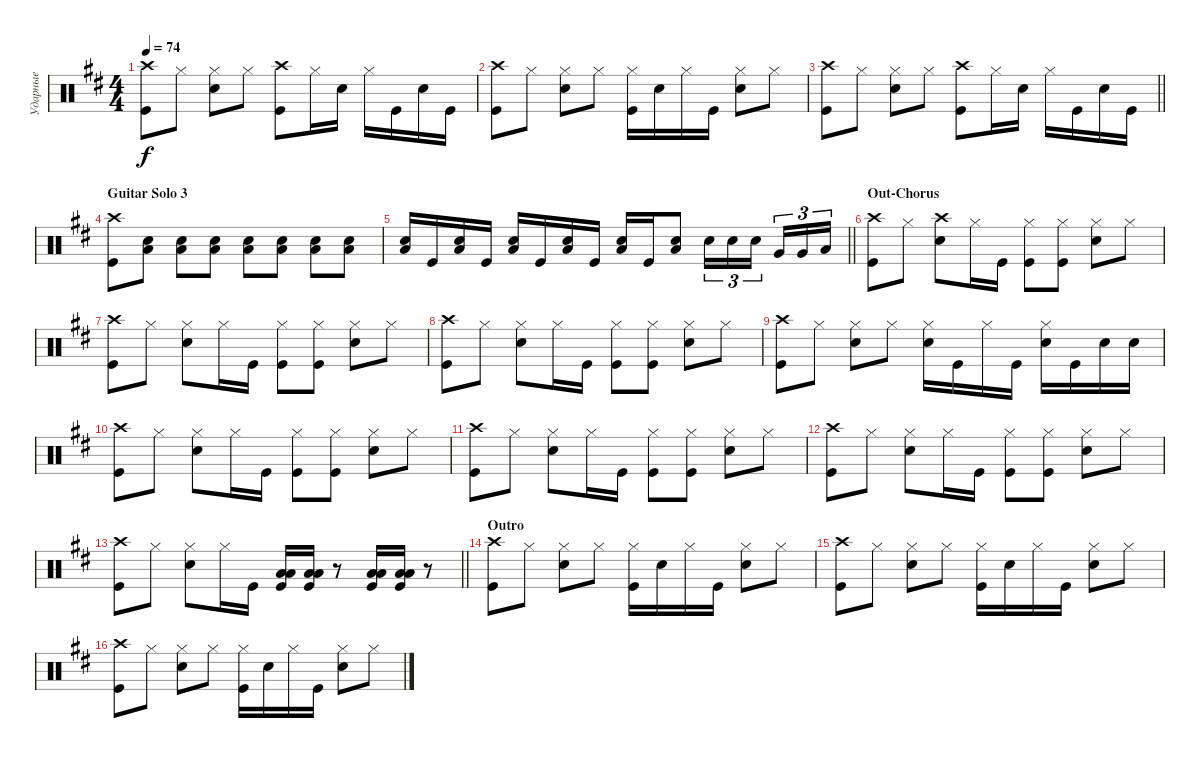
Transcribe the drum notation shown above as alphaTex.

\track ("Ударные" "Ударные") {instrument percussion}
\staff {score}
\articulation defaults
\ts (4 4)
\tempo 74
\clef neutral
\ks bminor
("Kick (hit)" "Crash high (hit)").8{dy f} "Hi-Hat (closed)".8 ("Snare (hit) 2" "Hi-Hat (closed)").8 "Hi-Hat (closed)".8 ("Kick (hit)" "Crash high (hit)").8 "Hi-Hat (closed)".16 "Snare (hit) 2".16 "Hi-Hat (closed)".16 "Kick (hit)".16 "Snare (hit) 2".16 "Kick (hit)".16 |
("Kick (hit)" "Crash high (hit)").8 "Hi-Hat (closed)".8 ("Snare (hit) 2" "Hi-Hat (closed)").8 "Hi-Hat (closed)".8 ("Kick (hit)" "Hi-Hat (closed)").16 "Snare (hit) 2".16 "Hi-Hat (closed)".16 "Kick (hit)".16 ("Snare (hit) 2" "Hi-Hat (closed)").8 "Hi-Hat (closed)".8 |
\barLineRight lightlight
("Kick (hit)" "Crash high (hit)").8 "Hi-Hat (closed)".8 ("Snare (hit) 2" "Hi-Hat (closed)").8 "Hi-Hat (closed)".8 ("Kick (hit)" "Crash high (hit)").8 "Hi-Hat (closed)".16 "Snare (hit) 2".16 "Hi-Hat (closed)".16 "Kick (hit)".16 "Snare (hit) 2".16 "Kick (hit)".16 |
\section ("" "Guitar Solo 3")
("Kick (hit)" "Crash high (hit)").8 ("Low Floor Tom (hit)" "Snare (hit) 2").8{bd 60} ("Snare (hit) 2" "Low Floor Tom (hit)").8{bd 60} ("Snare (hit) 2" "Low Floor Tom (hit)").8{bd 60} ("Snare (hit) 2" "Low Floor Tom (hit)").8{bd 60} ("Snare (hit) 2" "Low Floor Tom (hit)").8{bd 60} ("Snare (hit) 2" "Low Floor Tom (hit)").8{bd 60} ("Snare (hit) 2" "Low Floor Tom (hit)").8{bd 60} |
\barLineRight lightlight
("Snare (hit) 2" "Low Floor Tom (hit)").16{bd 60} "Kick (hit)".16 ("Snare (hit) 2" "Low Floor Tom (hit)").16{bd 60} "Kick (hit)".16 ("Snare (hit) 2" "Low Floor Tom (hit)").16{bd 60} "Kick (hit)".16 ("Snare (hit) 2" "Low Floor Tom (hit)").16{bd 60} "Kick (hit)".16 ("Snare (hit) 2" "Low Floor Tom (hit)").16{bd 60} "Kick (hit)".16 ("Snare (hit) 2" "Low Floor Tom (hit)").8{bd 60} "Snare (hit) 2".16{tu (3 2)} "Snare (hit) 2".16{tu (3 2)} "Snare (hit) 2".16{tu (3 2) beam splitsecondary} "Very Low Tom (hit)".16{tu (3 2)} "Very Low Tom (hit)".16{tu (3 2)} "Low Floor Tom (hit)".16{tu (3 2)} |
\section ("" "Out-Chorus")
("Kick (hit)" "Crash high (hit)").8 "Hi-Hat (closed)".8 ("Crash high (hit)" "Snare (hit) 2").8 "Hi-Hat (closed)".16 "Kick (hit)".16 ("Kick (hit)" "Hi-Hat (closed)").8 ("Kick (hit)" "Hi-Hat (closed)").8 ("Snare (hit) 2" "Hi-Hat (closed)").8 "Hi-Hat (closed)".8 |
("Kick (hit)" "Crash high (hit)").8 "Hi-Hat (closed)".8 ("Hi-Hat (closed)" "Snare (hit) 2").8 "Hi-Hat (closed)".16 "Kick (hit)".16 ("Kick (hit)" "Hi-Hat (closed)").8 ("Kick (hit)" "Hi-Hat (closed)").8 ("Snare (hit) 2" "Hi-Hat (closed)").8 "Hi-Hat (closed)".8 |
("Kick (hit)" "Crash high (hit)").8 "Hi-Hat (closed)".8 ("Hi-Hat (closed)" "Snare (hit) 2").8 "Hi-Hat (closed)".16 "Kick (hit)".16 ("Kick (hit)" "Hi-Hat (closed)").8 ("Kick (hit)" "Hi-Hat (closed)").8 ("Snare (hit) 2" "Hi-Hat (closed)").8 "Hi-Hat (closed)".8 |
("Kick (hit)" "Crash high (hit)").8 "Hi-Hat (closed)".8 ("Hi-Hat (closed)" "Snare (hit) 2").8 "Hi-Hat (closed)".8 ("Snare (hit) 2" "Hi-Hat (closed)").16 "Kick (hit)".16 "Hi-Hat (closed)".16 "Kick (hit)".16 ("Snare (hit) 2" "Hi-Hat (closed)").16 "Kick (hit)".16 "Snare (hit) 2".16 "Snare (hit) 2".16 |
("Kick (hit)" "Crash high (hit)").8 "Hi-Hat (closed)".8 ("Hi-Hat (closed)" "Snare (hit) 2").8 "Hi-Hat (closed)".16 "Kick (hit)".16 ("Kick (hit)" "Hi-Hat (closed)").8 ("Kick (hit)" "Hi-Hat (closed)").8 ("Snare (hit) 2" "Hi-Hat (closed)").8 "Hi-Hat (closed)".8 |
("Kick (hit)" "Crash high (hit)").8 "Hi-Hat (closed)".8 ("Hi-Hat (closed)" "Snare (hit) 2").8 "Hi-Hat (closed)".16 "Kick (hit)".16 ("Kick (hit)" "Hi-Hat (closed)").8 ("Kick (hit)" "Hi-Hat (closed)").8 ("Snare (hit) 2" "Hi-Hat (closed)").8 "Hi-Hat (closed)".8 |
("Kick (hit)" "Crash high (hit)").8 "Hi-Hat (closed)".8 ("Hi-Hat (closed)" "Snare (hit) 2").8 "Hi-Hat (closed)".16 "Kick (hit)".16 ("Kick (hit)" "Hi-Hat (closed)").8 ("Kick (hit)" "Hi-Hat (closed)").8 ("Snare (hit) 2" "Hi-Hat (closed)").8 "Hi-Hat (closed)".8 |
\barLineRight lightlight
("Kick (hit)" "Crash high (hit)").8 "Hi-Hat (closed)".8 ("Hi-Hat (closed)" "Snare (hit) 2").8 "Hi-Hat (closed)".16 "Kick (hit)".16 ("Low Tom (hit)" "Low Tom (hit)" "Kick (hit)").16{bd 60} ("Low Tom (hit)" "Low Tom (hit)" "Kick (hit)").16{bd 60} r.8 ("Kick (hit)" "Low Tom (hit)" "Low Tom (hit)").16{bd 60} ("Kick (hit)" "Low Tom (hit)" "Low Tom (hit)").16{bd 60} r.8 |
\section ("" "Outro")
("Kick (hit)" "Crash high (hit)").8 "Hi-Hat (closed)".8 ("Snare (hit) 2" "Hi-Hat (closed)").8 "Hi-Hat (closed)".8 ("Hi-Hat (closed)" "Kick (hit)").16 "Snare (hit) 2".16 "Hi-Hat (closed)".16 "Kick (hit)".16 ("Hi-Hat (closed)" "Snare (hit) 2").8 "Hi-Hat (closed)".8 |
("Kick (hit)" "Crash high (hit)").8 "Hi-Hat (closed)".8 ("Snare (hit) 2" "Hi-Hat (closed)").8 "Hi-Hat (closed)".8 ("Hi-Hat (closed)" "Kick (hit)").16 "Snare (hit) 2".16 "Hi-Hat (closed)".16 "Kick (hit)".16 ("Hi-Hat (closed)" "Snare (hit) 2").8 "Hi-Hat (closed)".8 |
("Kick (hit)" "Crash high (hit)").8 "Hi-Hat (closed)".8 ("Snare (hit) 2" "Hi-Hat (closed)").8 "Hi-Hat (closed)".8 ("Hi-Hat (closed)" "Kick (hit)").16 "Snare (hit) 2".16 "Hi-Hat (closed)".16 "Kick (hit)".16 ("Hi-Hat (closed)" "Snare (hit) 2").8 "Hi-Hat (closed)".8
